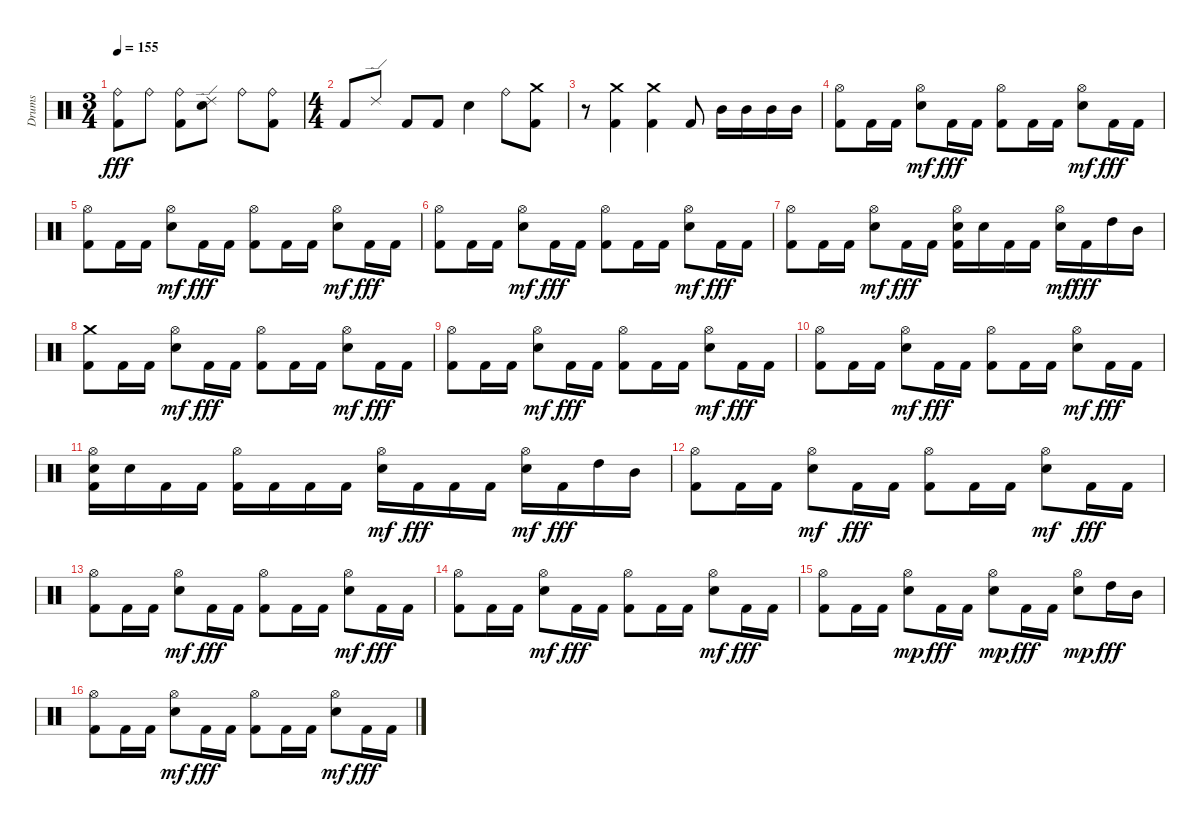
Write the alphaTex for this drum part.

\track ("Drums" "Drums") {instrument percussion}
\staff {score}
\articulation defaults
\ts (3 4)
\tempo 155
\clef neutral
\ks c
("Ride (bell)" "Kick (hit) 2").8{dy fff} "Ride (bell)".8 ("Ride (bell)" "Kick (hit) 2").8 ("Electric Snare (hit)" "Ride (edge) 2").8 "Ride (bell)".8 ("Ride (bell)" "Kick (hit) 2").8 |
\ts (4 4)
"Kick (hit) 2".8 "Ride (edge) 2".8 "Kick (hit) 2".8 "Kick (hit) 2".8 "Electric Snare (hit)".4 "Ride (bell)".8 ("Crash medium (hit)" "Kick (hit) 2").8 |
r.8 ("Crash medium (hit)" "Kick (hit) 2").4 ("Crash medium (hit)" "Kick (hit) 2").4 "Kick (hit) 2".8 "Mid Tom (hit)".16 "Mid Tom (hit)".16 "Mid Tom (hit)".16 "Mid Tom (hit)".16 |
("Hi-Hat (open)" "Kick (hit) 2").8 "Kick (hit) 2".16 "Kick (hit) 2".16 ("Electric Snare (hit)" "Hi-Hat (open)").8{dy mf} "Kick (hit) 2".16{dy fff} "Kick (hit) 2".16 ("Hi-Hat (open)" "Kick (hit) 2").8 "Kick (hit) 2".16 "Kick (hit) 2".16 ("Electric Snare (hit)" "Hi-Hat (open)").8{dy mf} "Kick (hit) 2".16{dy fff} "Kick (hit) 2".16 |
("Hi-Hat (open)" "Kick (hit) 2").8 "Kick (hit) 2".16 "Kick (hit) 2".16 ("Electric Snare (hit)" "Hi-Hat (open)").8{dy mf} "Kick (hit) 2".16{dy fff} "Kick (hit) 2".16 ("Hi-Hat (open)" "Kick (hit) 2").8 "Kick (hit) 2".16 "Kick (hit) 2".16 ("Electric Snare (hit)" "Hi-Hat (open)").8{dy mf} "Kick (hit) 2".16{dy fff} "Kick (hit) 2".16 |
("Hi-Hat (open)" "Kick (hit) 2").8 "Kick (hit) 2".16 "Kick (hit) 2".16 ("Electric Snare (hit)" "Hi-Hat (open)").8{dy mf} "Kick (hit) 2".16{dy fff} "Kick (hit) 2".16 ("Hi-Hat (open)" "Kick (hit) 2").8 "Kick (hit) 2".16 "Kick (hit) 2".16 ("Electric Snare (hit)" "Hi-Hat (open)").8{dy mf} "Kick (hit) 2".16{dy fff} "Kick (hit) 2".16 |
("Hi-Hat (open)" "Kick (hit) 2").8 "Kick (hit) 2".16 "Kick (hit) 2".16 ("Electric Snare (hit)" "Hi-Hat (open)").8{dy mf} "Kick (hit) 2".16{dy fff} "Kick (hit) 2".16 ("Electric Snare (hit)" "Hi-Hat (open)" "Kick (hit) 2").16 "Electric Snare (hit)".16 "Kick (hit) 2".16 "Kick (hit) 2".16 ("Electric Snare (hit)" "Hi-Hat (open)").16{dy mf} "Kick (hit) 2".16{dy fff} "High Tom (hit)".16 "Mid Tom (hit)".16 |
("Crash medium (hit)" "Kick (hit) 2").8 "Kick (hit) 2".16 "Kick (hit) 2".16 ("Electric Snare (hit)" "Hi-Hat (open)").8{dy mf} "Kick (hit) 2".16{dy fff} "Kick (hit) 2".16 ("Hi-Hat (open)" "Kick (hit) 2").8 "Kick (hit) 2".16 "Kick (hit) 2".16 ("Electric Snare (hit)" "Hi-Hat (open)").8{dy mf} "Kick (hit) 2".16{dy fff} "Kick (hit) 2".16 |
("Hi-Hat (open)" "Kick (hit) 2").8 "Kick (hit) 2".16 "Kick (hit) 2".16 ("Electric Snare (hit)" "Hi-Hat (open)").8{dy mf} "Kick (hit) 2".16{dy fff} "Kick (hit) 2".16 ("Hi-Hat (open)" "Kick (hit) 2").8 "Kick (hit) 2".16 "Kick (hit) 2".16 ("Electric Snare (hit)" "Hi-Hat (open)").8{dy mf} "Kick (hit) 2".16{dy fff} "Kick (hit) 2".16 |
("Hi-Hat (open)" "Kick (hit) 2").8 "Kick (hit) 2".16 "Kick (hit) 2".16 ("Electric Snare (hit)" "Hi-Hat (open)").8{dy mf} "Kick (hit) 2".16{dy fff} "Kick (hit) 2".16 ("Hi-Hat (open)" "Kick (hit) 2").8 "Kick (hit) 2".16 "Kick (hit) 2".16 ("Electric Snare (hit)" "Hi-Hat (open)").8{dy mf} "Kick (hit) 2".16{dy fff} "Kick (hit) 2".16 |
("Electric Snare (hit)" "Hi-Hat (open)" "Kick (hit) 2").16 "Electric Snare (hit)".16 "Kick (hit) 2".16 "Kick (hit) 2".16 ("Hi-Hat (open)" "Kick (hit) 2").16 "Kick (hit) 2".16 "Kick (hit) 2".16 "Kick (hit) 2".16 ("Electric Snare (hit)" "Hi-Hat (open)").16{dy mf} "Kick (hit) 2".16{dy fff} "Kick (hit) 2".16 "Kick (hit) 2".16 ("Electric Snare (hit)" "Hi-Hat (open)").16{dy mf} "Kick (hit) 2".16{dy fff} "High Tom (hit)".16 "Mid Tom (hit)".16 |
("Hi-Hat (open)" "Kick (hit) 2").8 "Kick (hit) 2".16 "Kick (hit) 2".16 ("Electric Snare (hit)" "Hi-Hat (open)").8{dy mf} "Kick (hit) 2".16{dy fff} "Kick (hit) 2".16 ("Hi-Hat (open)" "Kick (hit) 2").8 "Kick (hit) 2".16 "Kick (hit) 2".16 ("Electric Snare (hit)" "Hi-Hat (open)").8{dy mf} "Kick (hit) 2".16{dy fff} "Kick (hit) 2".16 |
("Hi-Hat (open)" "Kick (hit) 2").8 "Kick (hit) 2".16 "Kick (hit) 2".16 ("Electric Snare (hit)" "Hi-Hat (open)").8{dy mf} "Kick (hit) 2".16{dy fff} "Kick (hit) 2".16 ("Hi-Hat (open)" "Kick (hit) 2").8 "Kick (hit) 2".16 "Kick (hit) 2".16 ("Electric Snare (hit)" "Hi-Hat (open)").8{dy mf} "Kick (hit) 2".16{dy fff} "Kick (hit) 2".16 |
("Hi-Hat (open)" "Kick (hit) 2").8 "Kick (hit) 2".16 "Kick (hit) 2".16 ("Electric Snare (hit)" "Hi-Hat (open)").8{dy mf} "Kick (hit) 2".16{dy fff} "Kick (hit) 2".16 ("Hi-Hat (open)" "Kick (hit) 2").8 "Kick (hit) 2".16 "Kick (hit) 2".16 ("Electric Snare (hit)" "Hi-Hat (open)").8{dy mf} "Kick (hit) 2".16{dy fff} "Kick (hit) 2".16 |
("Hi-Hat (open)" "Kick (hit) 2").8 "Kick (hit) 2".16 "Kick (hit) 2".16 ("Electric Snare (hit)" "Hi-Hat (open)").8{dy mp} "Kick (hit) 2".16{dy fff} "Kick (hit) 2".16 ("Electric Snare (hit)" "Hi-Hat (open)").8{dy mp} "Kick (hit) 2".16{dy fff} "Kick (hit) 2".16 ("Electric Snare (hit)" "Hi-Hat (open)").8{dy mp} "High Tom (hit)".16{dy fff} "Mid Tom (hit)".16 |
("Hi-Hat (open)" "Kick (hit) 2").8 "Kick (hit) 2".16 "Kick (hit) 2".16 ("Electric Snare (hit)" "Hi-Hat (open)").8{dy mf} "Kick (hit) 2".16{dy fff} "Kick (hit) 2".16 ("Hi-Hat (open)" "Kick (hit) 2").8 "Kick (hit) 2".16 "Kick (hit) 2".16 ("Electric Snare (hit)" "Hi-Hat (open)").8{dy mf} "Kick (hit) 2".16{dy fff} "Kick (hit) 2".16
